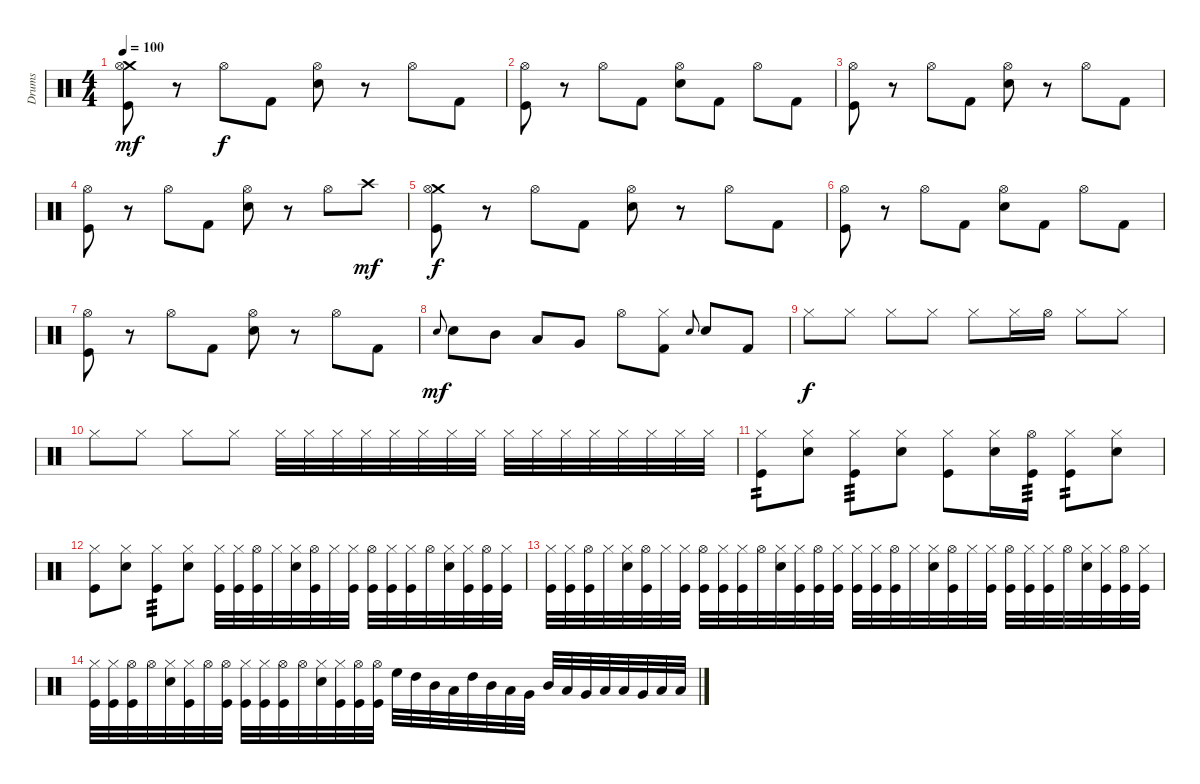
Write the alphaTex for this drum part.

\track ("Drums" "Drums") {instrument percussion}
\staff {score}
\articulation defaults
\ts (4 4)
\tempo 100
\clef neutral
\ks c
("Crash medium (hit)" "Hi-Hat (open)" "Kick (hit)").8{dy mf} r.8 "Hi-Hat (open)".8{dy f} "Kick (hit) 2".8 ("Hi-Hat (open)" "Electric Snare (hit)").8 r.8 "Hi-Hat (open)".8 "Kick (hit) 2".8 |
("Hi-Hat (open)" "Kick (hit)").8 r.8 "Hi-Hat (open)".8 "Kick (hit) 2".8 ("Hi-Hat (open)" "Electric Snare (hit)").8 "Kick (hit) 2".8 "Hi-Hat (open)".8 "Kick (hit) 2".8 |
("Hi-Hat (open)" "Kick (hit)").8 r.8 "Hi-Hat (open)".8 "Kick (hit) 2".8 ("Hi-Hat (open)" "Electric Snare (hit)").8 r.8 "Hi-Hat (open)".8 "Kick (hit) 2".8 |
("Hi-Hat (open)" "Kick (hit)").8 r.8 "Hi-Hat (open)".8 "Kick (hit) 2".8 ("Hi-Hat (open)" "Electric Snare (hit)").8 r.8 "Hi-Hat (open)".8 "Crash high (hit)".8{dy mf} |
("Crash medium (hit)" "Hi-Hat (open)" "Kick (hit)").8{dy f} r.8 "Hi-Hat (open)".8 "Kick (hit) 2".8 ("Hi-Hat (open)" "Electric Snare (hit)").8 r.8 "Hi-Hat (open)".8 "Kick (hit) 2".8 |
("Hi-Hat (open)" "Kick (hit)").8 r.8 "Hi-Hat (open)".8 "Kick (hit) 2".8 ("Hi-Hat (open)" "Electric Snare (hit)").8 "Kick (hit) 2".8 "Hi-Hat (open)".8 "Kick (hit) 2".8 |
("Hi-Hat (open)" "Kick (hit)").8 r.8 "Hi-Hat (open)".8 "Kick (hit) 2".8 ("Hi-Hat (open)" "Electric Snare (hit)").8 r.8 "Hi-Hat (open)".8 "Kick (hit) 2".8 |
"Electric Snare (hit)".8{gr onbeat dy mf} "Electric Snare (hit)".8 "Mid Tom (hit)".8 "Low Tom (hit)".8 "Very Low Tom (hit)".8 "Hi-Hat (open)".8 ("Kick (hit) 2" "Hi-Hat (closed)").8 "Electric Snare (hit)".8{gr onbeat} "Electric Snare (hit)".8 "Kick (hit) 2".8 |
"Hi-Hat (closed)".8{dy f} "Hi-Hat (closed)".8 "Hi-Hat (closed)".8 "Hi-Hat (closed)".8 "Hi-Hat (closed)".8 "Hi-Hat (closed)".16 "Hi-Hat (open)".16 "Hi-Hat (closed)".8 "Hi-Hat (closed)".8 |
"Hi-Hat (closed)".8 "Hi-Hat (closed)".8 "Hi-Hat (closed)".8 "Hi-Hat (closed)".8 "Hi-Hat (closed)".32 "Hi-Hat (closed)".32 "Hi-Hat (closed)".32 "Hi-Hat (closed)".32 "Hi-Hat (closed)".32 "Hi-Hat (closed)".32 "Hi-Hat (closed)".32 "Hi-Hat (closed)".32 "Hi-Hat (closed)".32 "Hi-Hat (closed)".32 "Hi-Hat (closed)".32 "Hi-Hat (closed)".32 "Hi-Hat (closed)".32 "Hi-Hat (closed)".32 "Hi-Hat (closed)".32 "Hi-Hat (closed)".32 |
("Hi-Hat (closed)" "Kick (hit)").8{tp 2} ("Hi-Hat (closed)" "Snare (hit) 2").8 ("Hi-Hat (closed)" "Kick (hit)").8{tp 3} ("Hi-Hat (closed)" "Snare (hit) 2").8 ("Hi-Hat (closed)" "Kick (hit)").8 ("Hi-Hat (closed)" "Snare (hit) 2").16 ("Hi-Hat (open)" "Kick (hit)").16{tp 3} ("Hi-Hat (closed)" "Kick (hit)").8{tp 2} ("Hi-Hat (closed)" "Snare (hit) 2").8 |
("Hi-Hat (closed)" "Kick (hit)").8 ("Hi-Hat (closed)" "Snare (hit) 2").8 ("Hi-Hat (closed)" "Kick (hit)").8{tp 3} ("Hi-Hat (closed)" "Snare (hit) 2").8 ("Hi-Hat (closed)" "Kick (hit)").32 ("Hi-Hat (closed)" "Kick (hit)").32 ("Hi-Hat (open)" "Kick (hit)").32 "Hi-Hat (closed)".32 ("Hi-Hat (closed)" "Snare (hit) 2").32 ("Hi-Hat (open)" "Kick (hit)").32 "Hi-Hat (closed)".32 ("Hi-Hat (closed)" "Kick (hit)").32 ("Hi-Hat (open)" "Kick (hit)").32 ("Hi-Hat (closed)" "Kick (hit)").32 ("Hi-Hat (closed)" "Kick (hit)").32 "Hi-Hat (open)".32 ("Hi-Hat (closed)" "Snare (hit) 2").32 ("Hi-Hat (closed)" "Kick (hit)").32 ("Hi-Hat (open)" "Kick (hit)").32 ("Hi-Hat (closed)" "Kick (hit)").32 |
("Hi-Hat (closed)" "Kick (hit)").32 ("Hi-Hat (closed)" "Kick (hit)").32 ("Hi-Hat (open)" "Kick (hit)").32 "Hi-Hat (closed)".32 ("Hi-Hat (closed)" "Snare (hit) 2").32 ("Hi-Hat (open)" "Kick (hit)").32 "Hi-Hat (closed)".32 ("Hi-Hat (closed)" "Kick (hit)").32 ("Hi-Hat (open)" "Kick (hit)").32 ("Hi-Hat (closed)" "Kick (hit)").32 ("Hi-Hat (closed)" "Kick (hit)").32 "Hi-Hat (open)".32 ("Hi-Hat (closed)" "Snare (hit) 2").32 ("Hi-Hat (closed)" "Kick (hit)").32 ("Hi-Hat (open)" "Kick (hit)").32 ("Hi-Hat (closed)" "Kick (hit)").32 ("Hi-Hat (closed)" "Kick (hit)").32 ("Hi-Hat (closed)" "Kick (hit)").32 ("Hi-Hat (open)" "Kick (hit)").32 "Hi-Hat (closed)".32 ("Hi-Hat (closed)" "Snare (hit) 2").32 ("Hi-Hat (open)" "Kick (hit)").32 "Hi-Hat (closed)".32 ("Hi-Hat (closed)" "Kick (hit)").32 ("Hi-Hat (open)" "Kick (hit)").32 ("Hi-Hat (closed)" "Kick (hit)").32 ("Hi-Hat (closed)" "Kick (hit)").32 "Hi-Hat (open)".32 ("Hi-Hat (closed)" "Snare (hit) 2").32 ("Hi-Hat (closed)" "Kick (hit)").32 ("Hi-Hat (open)" "Kick (hit)").32 ("Hi-Hat (closed)" "Kick (hit)").32 |
("Hi-Hat (closed)" "Kick (hit)").32 ("Hi-Hat (closed)" "Kick (hit)").32 ("Hi-Hat (open)" "Kick (hit)").32 "Hi-Hat (open)".32 ("Hi-Hat (closed)" "Snare (hit) 2").32 ("Hi-Hat (closed)" "Kick (hit)").32 "Hi-Hat (open)".32 ("Hi-Hat (open)" "Kick (hit)").32 ("Hi-Hat (closed)" "Kick (hit)").32 ("Hi-Hat (closed)" "Kick (hit)").32 ("Hi-Hat (open)" "Kick (hit)").32 "Hi-Hat (open)".32 ("Hi-Hat (closed)" "Snare (hit) 2").32 ("Hi-Hat (closed)" "Kick (hit)").32 ("Hi-Hat (open)" "Kick (hit)").32 ("Hi-Hat (open)" "Kick (hit)").32 "High Floor Tom (hit)".32 "High Tom (hit)".32 "Mid Tom (hit)".32 "Low Tom (hit)".32 "High Tom (hit)".32 "Mid Tom (hit)".32 "Low Tom (hit)".32 "Very Low Tom (hit)".32 "Mid Tom (hit)".32 "Low Tom (hit)".32 "Very Low Tom (hit)".32 "Low Floor Tom (hit)".32 "Low Tom (hit)".32 "Very Low Tom (hit)".32 "Low Floor Tom (hit)".32 "Low Floor Tom (hit)".32
